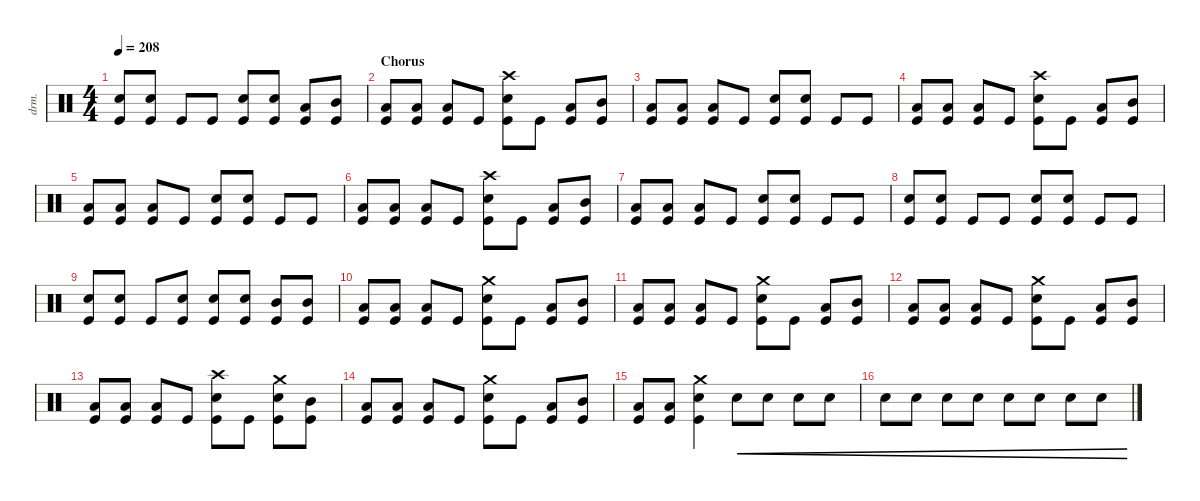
\defaultSystemsLayout 4
\hideDynamics
\bracketExtendMode nobrackets
\otherSystemsTrackNameOrientation horizontal
\track ("Drums" "drm.") {multiBarRest instrument percussion}
\staff
\articulation defaults
\ts (4 4)
\tempo 208
\clef neutral
\ks c
("Kick (hit)" "Snare (hit) 2").8{dy f} ("Kick (hit)" "Snare (hit) 2").8 "Kick (hit)".8 "Kick (hit)".8 ("Kick (hit)" "Snare (hit) 2").8 ("Kick (hit)" "Snare (hit) 2").8 ("Kick (hit)" "Low Tom (hit)").8 ("Kick (hit)" "Mid Tom (hit)").8 |
\section ("" "Chorus")
("Kick (hit)" "Low Tom (hit)").8 ("Kick (hit)" "Low Tom (hit)").8 ("Kick (hit)" "Low Tom (hit)").8 "Kick (hit)".8 ("Kick (hit)" "Snare (hit) 2" "Crash high (hit)").8 "Kick (hit)".8 ("Kick (hit)" "Low Tom (hit)").8 ("Kick (hit)" "Mid Tom (hit)").8 |
("Kick (hit)" "Low Tom (hit)").8 ("Kick (hit)" "Low Tom (hit)").8 ("Kick (hit)" "Low Tom (hit)").8 "Kick (hit)".8 ("Kick (hit)" "Snare (hit) 2").8 ("Kick (hit)" "Snare (hit) 2").8 "Kick (hit)".8 "Kick (hit)".8 |
("Kick (hit)" "Low Tom (hit)").8 ("Kick (hit)" "Low Tom (hit)").8 ("Kick (hit)" "Low Tom (hit)").8 "Kick (hit)".8 ("Kick (hit)" "Snare (hit) 2" "Crash high (hit)").8 "Kick (hit)".8 ("Kick (hit)" "Low Tom (hit)").8 ("Kick (hit)" "Mid Tom (hit)").8 |
("Kick (hit)" "Low Tom (hit)").8 ("Kick (hit)" "Low Tom (hit)").8 ("Kick (hit)" "Low Tom (hit)").8 "Kick (hit)".8 ("Kick (hit)" "Snare (hit) 2").8 ("Kick (hit)" "Snare (hit) 2").8 "Kick (hit)".8 "Kick (hit)".8 |
("Kick (hit)" "Low Tom (hit)").8 ("Kick (hit)" "Low Tom (hit)").8 ("Kick (hit)" "Low Tom (hit)").8 "Kick (hit)".8 ("Kick (hit)" "Snare (hit) 2" "Crash high (hit)").8 "Kick (hit)".8 ("Kick (hit)" "Low Tom (hit)").8 ("Kick (hit)" "Mid Tom (hit)").8 |
("Kick (hit)" "Low Tom (hit)").8 ("Kick (hit)" "Low Tom (hit)").8 ("Kick (hit)" "Low Tom (hit)").8 "Kick (hit)".8 ("Kick (hit)" "Snare (hit) 2").8 ("Kick (hit)" "Snare (hit) 2").8 "Kick (hit)".8 "Kick (hit)".8 |
("Kick (hit)" "Snare (hit) 2").8 ("Kick (hit)" "Snare (hit) 2").8 "Kick (hit)".8 "Kick (hit)".8 ("Kick (hit)" "Snare (hit) 2").8 ("Kick (hit)" "Snare (hit) 2").8 "Kick (hit)".8 "Kick (hit)".8 |
("Kick (hit)" "Snare (hit) 2").8 ("Kick (hit)" "Snare (hit) 2").8 "Kick (hit)".8 ("Kick (hit)" "Snare (hit) 2").8 ("Kick (hit)" "Snare (hit) 2").8 ("Kick (hit)" "Snare (hit) 2").8 ("Kick (hit)" "Mid Tom (hit)").8 ("Kick (hit)" "Mid Tom (hit)").8 |
("Kick (hit)" "Low Tom (hit)").8 ("Kick (hit)" "Low Tom (hit)").8 ("Kick (hit)" "Low Tom (hit)").8 "Kick (hit)".8 ("Kick (hit)" "Crash medium (hit)" "Snare (hit) 2").8 "Kick (hit)".8 ("Kick (hit)" "Low Tom (hit)").8 ("Kick (hit)" "Mid Tom (hit)").8 |
("Kick (hit)" "Low Tom (hit)").8 ("Kick (hit)" "Low Tom (hit)").8 ("Kick (hit)" "Low Tom (hit)").8 "Kick (hit)".8 ("Kick (hit)" "Snare (hit) 2" "Crash medium (hit)").8 "Kick (hit)".8 ("Kick (hit)" "Low Tom (hit)").8 ("Kick (hit)" "Mid Tom (hit)").8 |
("Kick (hit)" "Low Tom (hit)").8 ("Kick (hit)" "Low Tom (hit)").8 ("Kick (hit)" "Low Tom (hit)").8 "Kick (hit)".8 ("Kick (hit)" "Snare (hit) 2" "Crash medium (hit)").8 "Kick (hit)".8 ("Kick (hit)" "Low Tom (hit)").8 ("Kick (hit)" "Mid Tom (hit)").8 |
("Kick (hit)" "Low Tom (hit)").8 ("Kick (hit)" "Low Tom (hit)").8 ("Kick (hit)" "Low Tom (hit)").8 "Kick (hit)".8 ("Kick (hit)" "Snare (hit) 2" "Crash high (hit)").8 "Kick (hit)".8 ("Kick (hit)" "Crash medium (hit)" "Snare (hit) 2").8 ("Kick (hit)" "Mid Tom (hit)").8 |
("Kick (hit)" "Low Tom (hit)").8 ("Kick (hit)" "Low Tom (hit)").8 ("Kick (hit)" "Low Tom (hit)").8 "Kick (hit)".8 ("Kick (hit)" "Snare (hit) 2" "Crash medium (hit)").8 "Kick (hit)".8 ("Kick (hit)" "Low Tom (hit)").8 ("Kick (hit)" "Mid Tom (hit)").8 |
("Kick (hit)" "Low Tom (hit)").8 ("Kick (hit)" "Low Tom (hit)").8 ("Kick (hit)" "Snare (hit) 2" "Crash medium (hit)").4 "Snare (hit) 2".8{cre dy mp} "Snare (hit) 2".8{cre} "Snare (hit) 2".8{cre} "Snare (hit) 2".8{cre} |
"Snare (hit) 2".8{cre dy mf} "Snare (hit) 2".8{cre} "Snare (hit) 2".8{cre} "Snare (hit) 2".8{cre} "Snare (hit) 2".8{cre dy f} "Snare (hit) 2".8{cre} "Snare (hit) 2".8{cre} "Snare (hit) 2".8{cre}
